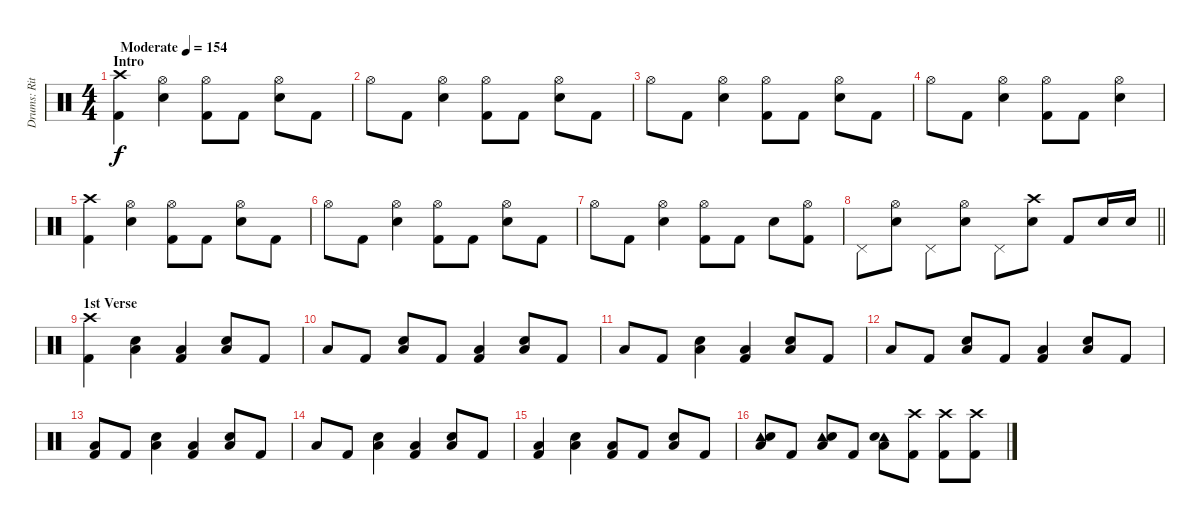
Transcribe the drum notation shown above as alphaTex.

\track ("Drums: Ritsu Tainaka" "Drums: Rit") {instrument percussion}
\staff {score}
\articulation defaults
\ts (4 4)
\section ("" "Intro")
\tempo (154 "Moderate")
\clef neutral
\ks c
("Crash high (hit)" "Kick (hit) 2").4{dy f} ("Hi-Hat (open)" "Electric Snare (hit)").4 ("Hi-Hat (open)" "Kick (hit) 2").8 "Kick (hit) 2".8 ("Hi-Hat (open)" "Electric Snare (hit)").8 "Kick (hit) 2".8 |
"Hi-Hat (open)".8 "Kick (hit) 2".8 ("Hi-Hat (open)" "Electric Snare (hit)").4 ("Hi-Hat (open)" "Kick (hit) 2").8 "Kick (hit) 2".8 ("Hi-Hat (open)" "Electric Snare (hit)").8 "Kick (hit) 2".8 |
"Hi-Hat (open)".8 "Kick (hit) 2".8 ("Hi-Hat (open)" "Electric Snare (hit)").4 ("Hi-Hat (open)" "Kick (hit) 2").8 "Kick (hit) 2".8 ("Hi-Hat (open)" "Electric Snare (hit)").8 "Kick (hit) 2".8 |
"Hi-Hat (open)".8 "Kick (hit) 2".8 ("Hi-Hat (open)" "Electric Snare (hit)").4 ("Hi-Hat (open)" "Kick (hit) 2").8 "Kick (hit) 2".8 ("Hi-Hat (open)" "Electric Snare (hit)").4 |
("Crash high (hit)" "Kick (hit) 2").4 ("Hi-Hat (open)" "Electric Snare (hit)").4 ("Hi-Hat (open)" "Kick (hit) 2").8 "Kick (hit) 2".8 ("Hi-Hat (open)" "Electric Snare (hit)").8 "Kick (hit) 2".8 |
"Hi-Hat (open)".8 "Kick (hit) 2".8 ("Hi-Hat (open)" "Electric Snare (hit)").4 ("Hi-Hat (open)" "Kick (hit) 2").8 "Kick (hit) 2".8 ("Hi-Hat (open)" "Electric Snare (hit)").8 "Kick (hit) 2".8 |
"Hi-Hat (open)".8 "Kick (hit) 2".8 ("Hi-Hat (open)" "Electric Snare (hit)").4 ("Hi-Hat (open)" "Kick (hit) 2").8 "Kick (hit) 2".8 "Electric Snare (hit)".8 ("Hi-Hat (open)" "Kick (hit) 2").8 |
\barLineRight lightlight "Pedal Hi-Hat (hit)".8
("Hi-Hat (open)" "Electric Snare (hit)").8 "Pedal Hi-Hat (hit)".8 ("Hi-Hat (open)" "Electric Snare (hit)").8 "Pedal Hi-Hat (hit)".8 ("Crash high (hit)" "Electric Snare (hit)").8 "Kick (hit) 2".8 "Electric Snare (hit)".16 "Electric Snare (hit)".16 |
\section ("" "1st Verse")
("Crash high (hit)" "Kick (hit) 2").4 ("Electric Snare (hit)" "Low Floor Tom (hit)").4 ("Low Floor Tom (hit)" "Kick (hit) 2").4 ("Electric Snare (hit)" "Low Floor Tom (hit)").8 "Kick (hit) 2".8 |
"Low Floor Tom (hit)".8 "Kick (hit) 2".8 ("Electric Snare (hit)" "Low Floor Tom (hit)").8 "Kick (hit) 2".8 ("Low Floor Tom (hit)" "Kick (hit) 2").4 ("Electric Snare (hit)" "Low Floor Tom (hit)").8 "Kick (hit) 2".8 |
"Low Floor Tom (hit)".8 "Kick (hit) 2".8 ("Electric Snare (hit)" "Low Floor Tom (hit)").4 ("Low Floor Tom (hit)" "Kick (hit) 2").4 ("Electric Snare (hit)" "Low Floor Tom (hit)").8 "Kick (hit) 2".8 |
"Low Floor Tom (hit)".8 "Kick (hit) 2".8 ("Electric Snare (hit)" "Low Floor Tom (hit)").8 "Kick (hit) 2".8 ("Low Floor Tom (hit)" "Kick (hit) 2").4 ("Electric Snare (hit)" "Low Floor Tom (hit)").8 "Kick (hit) 2".8 |
("Low Floor Tom (hit)" "Kick (hit) 2").8 "Kick (hit) 2".8 ("Electric Snare (hit)" "Low Floor Tom (hit)").4 ("Low Floor Tom (hit)" "Kick (hit) 2").4 ("Electric Snare (hit)" "Low Floor Tom (hit)").8 "Kick (hit) 2".8 |
"Low Floor Tom (hit)".8 "Kick (hit) 2".8 ("Electric Snare (hit)" "Low Floor Tom (hit)").4 ("Low Floor Tom (hit)" "Kick (hit) 2").4 ("Electric Snare (hit)" "Low Floor Tom (hit)").8 "Kick (hit) 2".8 |
("Low Floor Tom (hit)" "Kick (hit) 2").4 ("Electric Snare (hit)" "Low Floor Tom (hit)").4 ("Low Floor Tom (hit)" "Kick (hit) 2").8 "Kick (hit) 2".8 ("Electric Snare (hit)" "Low Floor Tom (hit)").8 "Kick (hit) 2".8 |
("Tambourine (hit)" "Electric Snare (hit)" "Low Floor Tom (hit)").8 "Kick (hit) 2".8 ("Tambourine (hit)" "Electric Snare (hit)" "Low Floor Tom (hit)").8 "Kick (hit) 2".8 ("Tambourine (hit)" "Electric Snare (hit)" "Low Floor Tom (hit)").8 ("Crash high (hit)" "Kick (hit) 2").8 ("Crash high (hit)" "Kick (hit) 2").8 ("Crash high (hit)" "Kick (hit) 2").8
